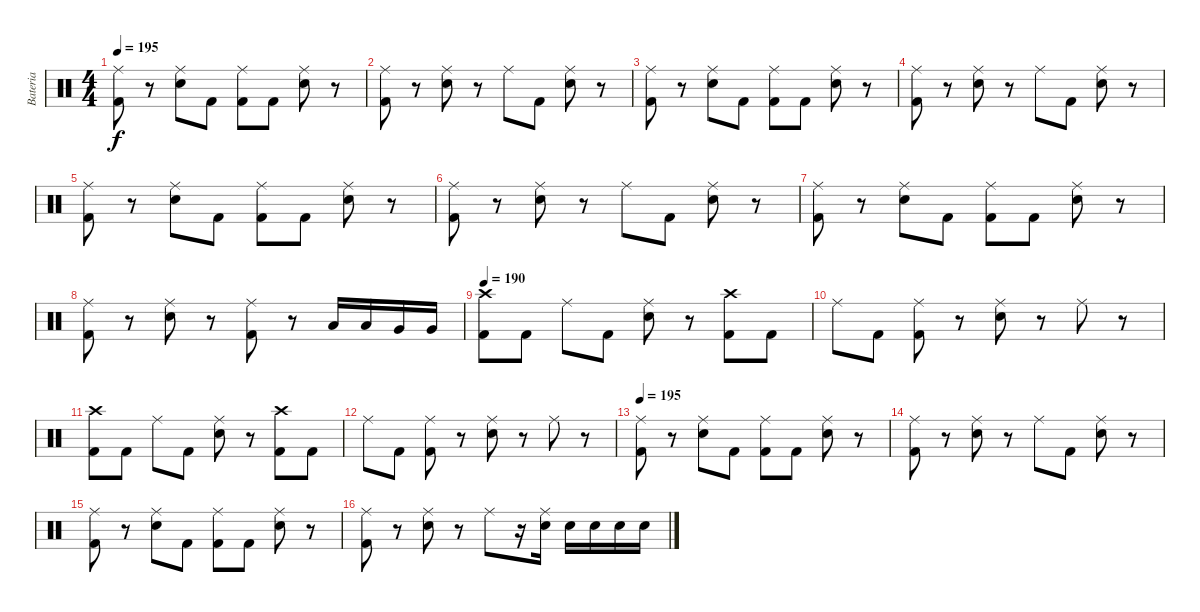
\track ("Bateria" "Bateria") {instrument percussion}
\staff {score}
\articulation defaults
\ts (4 4)
\tempo 195
\clef neutral
\ks c
("Ride (middle)" "Kick (hit) 2").8{dy f} r.8 ("Ride (middle)" "Snare (hit) 2").8 "Kick (hit) 2".8 ("Ride (middle)" "Kick (hit) 2").8 "Kick (hit) 2".8 ("Ride (middle)" "Snare (hit) 2").8 r.8 |
("Ride (middle)" "Kick (hit) 2").8 r.8 ("Ride (middle)" "Snare (hit) 2").8 r.8 "Ride (middle)".8 "Kick (hit) 2".8 ("Ride (middle)" "Snare (hit) 2").8 r.8 |
("Ride (middle)" "Kick (hit) 2").8 r.8 ("Ride (middle)" "Snare (hit) 2").8 "Kick (hit) 2".8 ("Ride (middle)" "Kick (hit) 2").8 "Kick (hit) 2".8 ("Ride (middle)" "Snare (hit) 2").8 r.8 |
("Ride (middle)" "Kick (hit) 2").8 r.8 ("Ride (middle)" "Snare (hit) 2").8 r.8 "Ride (middle)".8 "Kick (hit) 2".8 ("Ride (middle)" "Snare (hit) 2").8 r.8 |
("Ride (middle)" "Kick (hit) 2").8 r.8 ("Ride (middle)" "Snare (hit) 2").8 "Kick (hit) 2".8 ("Ride (middle)" "Kick (hit) 2").8 "Kick (hit) 2".8 ("Ride (middle)" "Snare (hit) 2").8 r.8 |
("Ride (middle)" "Kick (hit) 2").8 r.8 ("Ride (middle)" "Snare (hit) 2").8 r.8 "Ride (middle)".8 "Kick (hit) 2".8 ("Ride (middle)" "Snare (hit) 2").8 r.8 |
("Ride (middle)" "Kick (hit) 2").8 r.8 ("Ride (middle)" "Snare (hit) 2").8 "Kick (hit) 2".8 ("Ride (middle)" "Kick (hit) 2").8 "Kick (hit) 2".8 ("Ride (middle)" "Snare (hit) 2").8 r.8 |
("Ride (middle)" "Kick (hit) 2").8 r.8 ("Ride (middle)" "Snare (hit) 2").8 r.8 ("Ride (middle)" "Kick (hit) 2").8 r.8 "Low Tom (hit)".16 "Low Tom (hit)".16 "Very Low Tom (hit)".16 "Very Low Tom (hit)".16 |
\tempo 190
("Crash high (hit)" "Kick (hit) 2").8 "Kick (hit) 2".8 "Ride (middle)".8 "Kick (hit) 2".8 ("Ride (middle)" "Snare (hit) 2").8 r.8 ("Crash high (hit)" "Kick (hit) 2").8 "Kick (hit) 2".8 |
"Ride (middle)".8 "Kick (hit) 2".8 ("Ride (middle)" "Kick (hit) 2").8 r.8 ("Ride (middle)" "Snare (hit) 2").8 r.8 "Ride (middle)".8 r.8 |
("Crash high (hit)" "Kick (hit) 2").8 "Kick (hit) 2".8 "Ride (middle)".8 "Kick (hit) 2".8 ("Ride (middle)" "Snare (hit) 2").8 r.8 ("Crash high (hit)" "Kick (hit) 2").8 "Kick (hit) 2".8 |
"Ride (middle)".8 "Kick (hit) 2".8 ("Ride (middle)" "Kick (hit) 2").8 r.8 ("Ride (middle)" "Snare (hit) 2").8 r.8 "Ride (middle)".8 r.8 |
\tempo 195
("Ride (middle)" "Kick (hit) 2").8 r.8 ("Ride (middle)" "Snare (hit) 2").8 "Kick (hit) 2".8 ("Ride (middle)" "Kick (hit) 2").8 "Kick (hit) 2".8 ("Ride (middle)" "Snare (hit) 2").8 r.8 |
("Ride (middle)" "Kick (hit) 2").8 r.8 ("Ride (middle)" "Snare (hit) 2").8 r.8 "Ride (middle)".8 "Kick (hit) 2".8 ("Ride (middle)" "Snare (hit) 2").8 r.8 |
("Ride (middle)" "Kick (hit) 2").8 r.8 ("Ride (middle)" "Snare (hit) 2").8 "Kick (hit) 2".8 ("Ride (middle)" "Kick (hit) 2").8 "Kick (hit) 2".8 ("Ride (middle)" "Snare (hit) 2").8 r.8 |
("Ride (middle)" "Kick (hit) 2").8 r.8 ("Ride (middle)" "Snare (hit) 2").8 r.8 "Ride (middle)".8 r.16 ("Ride (middle)" "Snare (hit) 2").16 "Snare (hit) 2".16 "Snare (hit) 2".16 "Snare (hit) 2".16 "Snare (hit) 2".16
